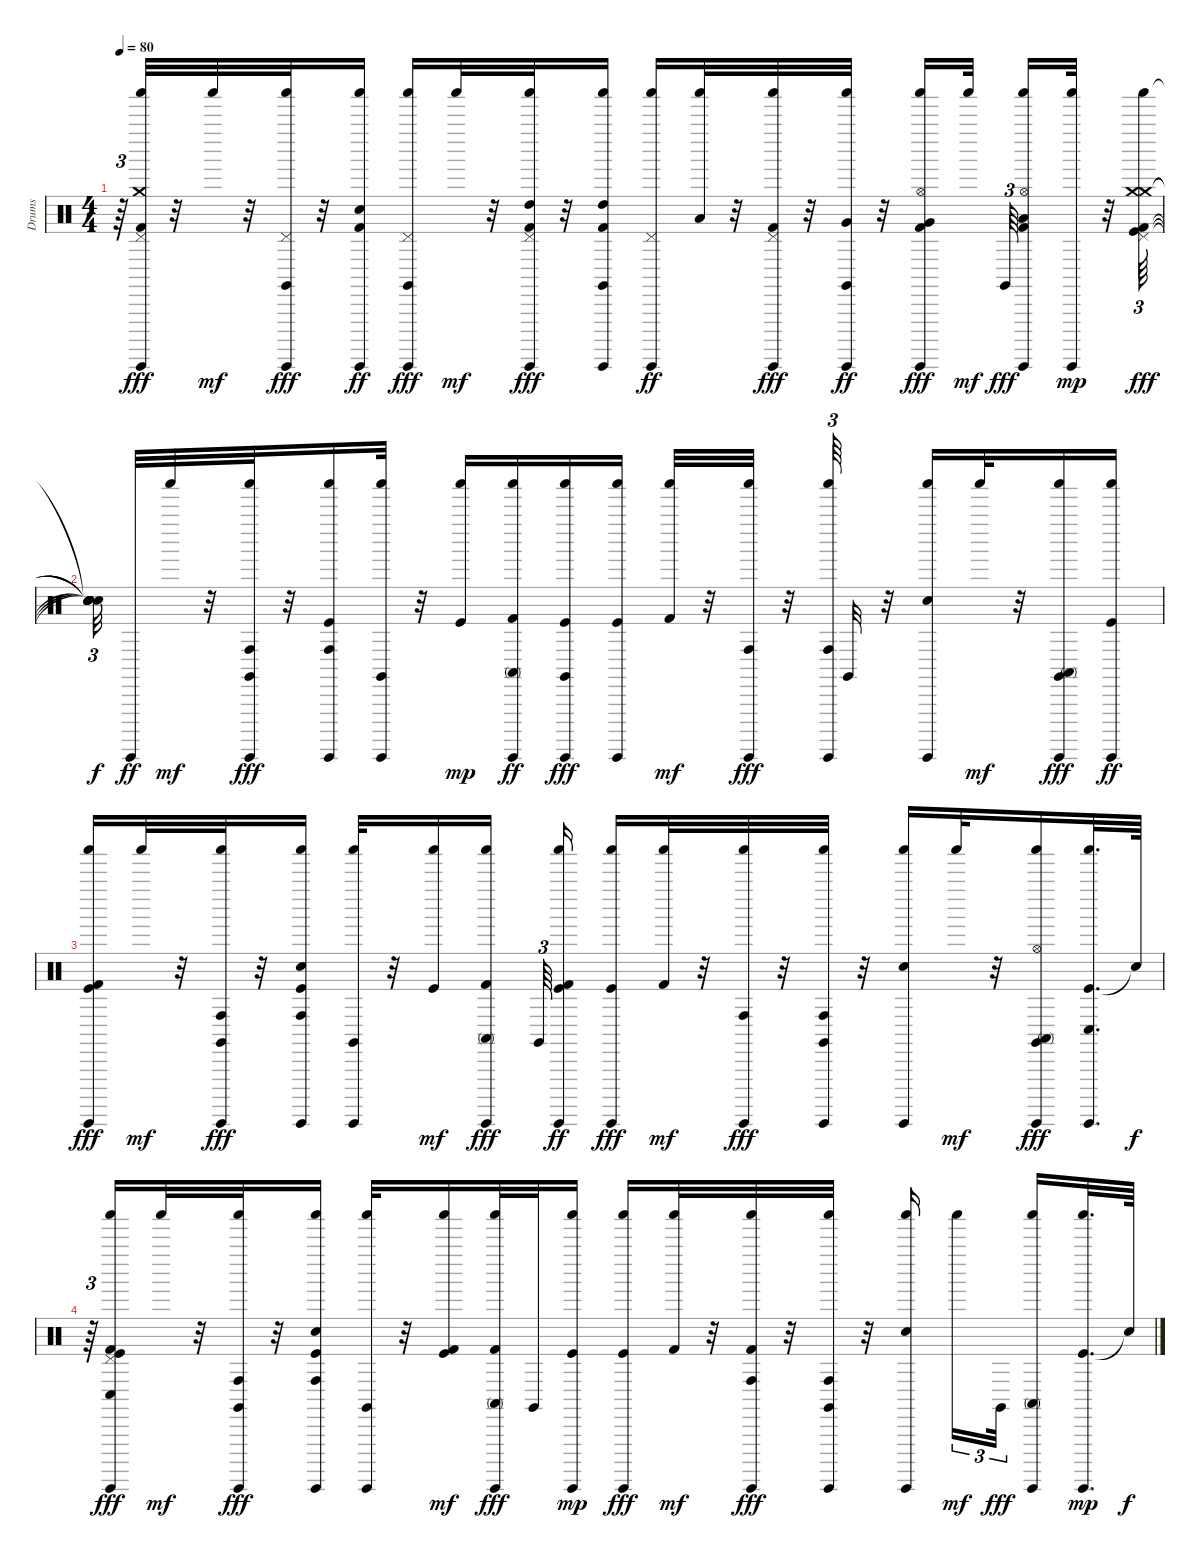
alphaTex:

\track ("Drums" "Drums") {instrument percussion}
\staff {score}
\articulation defaults
\ts (4 4)
\tempo 80
\clef neutral
\ks c
r.64{tu (3 2) dy mp} ("Crash medium (hit)" "Guiro (hit)" "Shaker (hit)" "Kick (hit) 2" "Pedal Hi-Hat (hit)").32{dy fff} r.32 "Shaker (hit)".32{dy mf} r.32 ("Guiro (hit)" "Shaker (hit)" "Pedal Hi-Hat (hit)" "Claves (hit)").32{dy fff} r.32 ("Guiro (hit)" "Shaker (hit)" "Electric Snare (hit)" "Kick (hit) 2").16{dy ff} ("Claves (hit)" "Guiro (hit)" "Shaker (hit)" "Pedal Hi-Hat (hit)").16{dy fff} "Shaker (hit)".32{dy mf} r.32 ("Guiro (hit)" "Shaker (hit)" "Kick (hit) 2" "Pedal Hi-Hat (hit)" "High Tom (hit)").32{dy fff} r.32 ("Guiro (hit)" "Shaker (hit)" "Kick (hit) 2" "High Tom (hit)" "Claves (hit)").16 ("Guiro (hit)" "Shaker (hit)" "Pedal Hi-Hat (hit)").16{dy ff} ("Shaker (hit)" "Low Tom (hit)").32 r.32 ("Guiro (hit)" "Shaker (hit)" "Kick (hit) 2" "Pedal Hi-Hat (hit)").32{dy fff} r.32 ("Claves (hit)" "Guiro (hit)" "Shaker (hit)" "Very Low Tom (hit)").32{dy ff} r.32 ("Guiro (hit)" "Shaker (hit)" "Kick (hit) 2" "Hi-Hat (open)" "Very Low Tom (hit)").16{dy fff} "Shaker (hit)".32{dy mf} "Claves (hit)".64{tu (3 2) dy fff} ("Guiro (hit)" "Shaker (hit)" "Kick (hit) 2" "Hi-Hat (open)" "Low Floor Tom (hit)").16 ("Guiro (hit)" "Shaker (hit)").32{dy mp} r.32 ("Crash medium (hit)" "Pedal Hi-Hat (hit)" "Shaker (hit)" "Kick (hit)" "Kick (hit) 2" "Crash medium (hit)").64{tu (3 2) dy fff} |
("Snare (hit)"{t} "Snare (hit)"{t} "Snare (hit)"{t} "Snare (hit)"{t} "Snare (hit)"{t} "Snare (hit)"{t}).32{tu (3 2) dy f} "Guiro (hit)".32{dy ff} "Shaker (hit)".32{dy mf} r.32 ("Claves (hit)" "Shaker (hit)" "Guiro (hit)" "Conga high (hit)").32{dy fff} r.32 ("Shaker (hit)" "Kick (hit)" "Guiro (hit)" "Conga high (hit)").16 ("Claves (hit)" "Shaker (hit)" "Guiro (hit)").32 r.32 ("Shaker (hit)" "Kick (hit)").16{dy mp} ("Shaker (hit)" "Guiro (hit)" "Conga high (mute)" "Kick (hit) 2").16{dy ff} ("Shaker (hit)" "Kick (hit)" "Guiro (hit)" "Claves (hit)").16{dy fff} ("Shaker (hit)" "Kick (hit)" "Guiro (hit)").16 ("Kick (hit) 2" "Shaker (hit)").32{dy mf} r.32 ("Shaker (hit)" "Guiro (hit)" "Conga high (hit)").32{dy fff} r.32 ("Shaker (hit)" "Guiro (hit)" "Conga high (hit)").64{tu (3 2)} "Claves (hit)".32 r.32 ("Shaker (hit)" "Guiro (hit)" "Electric Snare (hit)").16 "Shaker (hit)".32{dy mf} r.32 ("Shaker (hit)" "Guiro (hit)" "Conga high (mute)" "Claves (hit)").16{dy fff} ("Shaker (hit)" "Kick (hit)" "Guiro (hit)").16{dy ff} |
("Kick (hit)" "Guiro (hit)" "Kick (hit) 2" "Shaker (hit)").16{dy fff} "Shaker (hit)".32{dy mf} r.32 ("Guiro (hit)" "Shaker (hit)" "Conga high (hit)" "Claves (hit)").32{dy fff} r.32 ("Kick (hit)" "Guiro (hit)" "Shaker (hit)" "Conga high (hit)" "Electric Snare (hit)").16 ("Claves (hit)" "Guiro (hit)" "Shaker (hit)").32 r.32 ("Kick (hit)" "Shaker (hit)").16{dy mf} ("Guiro (hit)" "Kick (hit) 2" "Shaker (hit)" "Conga high (mute)").16{dy fff} "Claves (hit)".64{tu (3 2)} ("Kick (hit)" "Guiro (hit)" "Shaker (hit)" "Kick (hit) 2").16{dy ff} ("Kick (hit)" "Guiro (hit)" "Shaker (hit)").16{dy fff} ("Kick (hit) 2" "Shaker (hit)").32{dy mf} r.32 ("Guiro (hit)" "Shaker (hit)" "Conga high (hit)").32{dy fff} r.32 ("Guiro (hit)" "Shaker (hit)" "Conga high (hit)" "Claves (hit)").32 r.32 ("Guiro (hit)" "Electric Snare (hit)" "Shaker (hit)").16 "Shaker (hit)".32{dy mf} r.32 ("Claves (hit)" "Guiro (hit)" "Shaker (hit)" "Hi-Hat (open)" "Conga high (mute)").16{dy fff} ("Kick (hit)" "Guiro (hit)" "Shaker (hit)" "Conga low (hit)").32{d} "Snare (hit)"{t}.64{dy f} |
r.64{tu (3 2)} ("Kick (hit)" "Guiro (hit)" "Kick (hit) 2" "Shaker (hit)" "Pedal Hi-Hat (hit)" "Conga low (hit)").16{dy fff} "Shaker (hit)".32{dy mf} r.32 ("Claves (hit)" "Guiro (hit)" "Shaker (hit)" "Conga high (hit)").32{dy fff} r.32 ("Electric Snare (hit)" "Kick (hit)" "Guiro (hit)" "Shaker (hit)" "Conga high (hit)").16 ("Claves (hit)" "Guiro (hit)" "Shaker (hit)").32 r.32 ("Kick (hit)" "Kick (hit) 2" "Shaker (hit)").16{dy mf} ("Guiro (hit)" "Kick (hit) 2" "Shaker (hit)" "Conga high (mute)").32{dy fff} "Claves (hit)".32 ("Kick (hit)" "Guiro (hit)" "Shaker (hit)").16{dy mp} ("Kick (hit)" "Guiro (hit)" "Shaker (hit)").16{dy fff} ("Kick (hit) 2" "Shaker (hit)").32{dy mf} r.32 ("Guiro (hit)" "Kick (hit) 2" "Shaker (hit)" "Conga high (hit)").32{dy fff} r.32 ("Claves (hit)" "Guiro (hit)" "Shaker (hit)" "Conga high (hit)").32 r.32 ("Guiro (hit)" "Electric Snare (hit)" "Shaker (hit)").16 "Shaker (hit)".16{tu (3 2) dy mf} "Claves (hit)".32{tu (3 2) dy fff} ("Guiro (hit)" "Shaker (hit)" "Conga high (mute)").16 ("Kick (hit)" "Guiro (hit)" "Shaker (hit)").32{d dy mp} "Snare (hit)"{t}.64{dy f}
